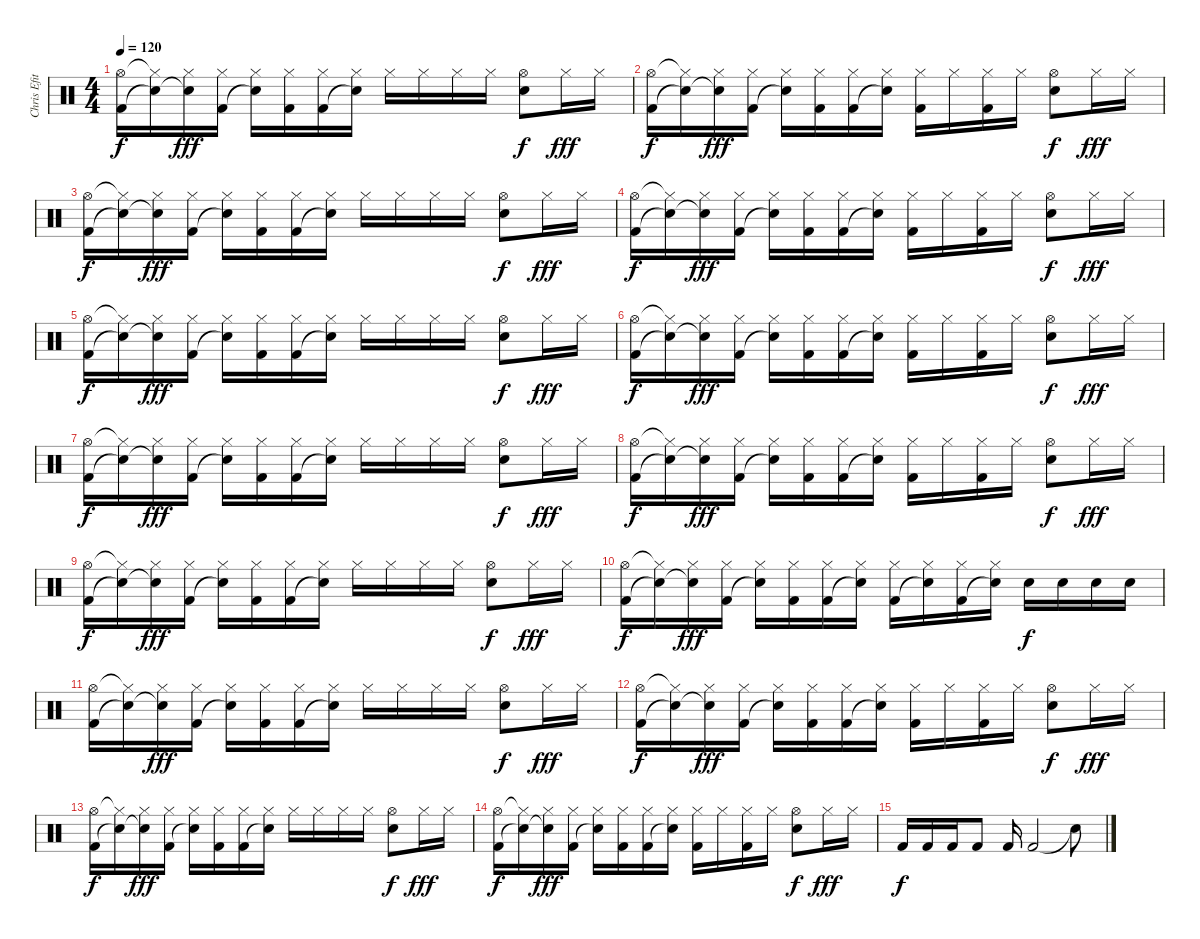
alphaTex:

\track ("Chris Efithimiadis (drums)" "Chris Efit") {instrument percussion}
\staff {score}
\articulation defaults
\ts (4 4)
\tempo 120
\clef neutral
\ks c
("Hi-Hat (open)" "Kick (hit) 2").16{dy f} ("Hi-Hat (closed)"{t} "Snare (hit)"{t}).16 ("Hi-Hat (closed)" "Snare (hit)"{t}).16{dy fff} ("Hi-Hat (closed)" "Kick (hit) 2").16 ("Hi-Hat (closed)" "Snare (hit)"{t}).16 ("Hi-Hat (closed)" "Kick (hit) 2").16 ("Hi-Hat (closed)" "Kick (hit) 2").16 ("Hi-Hat (closed)" "Snare (hit)"{t}).16 "Hi-Hat (closed)".16 "Hi-Hat (closed)".16 "Hi-Hat (closed)".16 "Hi-Hat (closed)".16 ("Hi-Hat (open)" "Snare (hit) 2").8{dy f} "Hi-Hat (closed)".16{dy fff} "Hi-Hat (closed)".16 |
("Hi-Hat (open)" "Kick (hit) 2").16{dy f} ("Hi-Hat (closed)"{t} "Snare (hit)"{t}).16 ("Hi-Hat (closed)" "Snare (hit)"{t}).16{dy fff} ("Hi-Hat (closed)" "Kick (hit) 2").16 ("Hi-Hat (closed)" "Snare (hit)"{t}).16 ("Hi-Hat (closed)" "Kick (hit) 2").16 ("Hi-Hat (closed)" "Kick (hit) 2").16 ("Hi-Hat (closed)" "Snare (hit)"{t}).16 ("Hi-Hat (closed)" "Kick (hit) 2").16 "Hi-Hat (closed)".16 ("Hi-Hat (closed)" "Kick (hit) 2").16 "Hi-Hat (closed)".16 ("Hi-Hat (open)" "Snare (hit) 2").8{dy f} "Hi-Hat (closed)".16{dy fff} "Hi-Hat (closed)".16 |
("Hi-Hat (open)" "Kick (hit) 2").16{dy f} ("Hi-Hat (closed)"{t} "Snare (hit)"{t}).16 ("Hi-Hat (closed)" "Snare (hit)"{t}).16{dy fff} ("Hi-Hat (closed)" "Kick (hit) 2").16 ("Hi-Hat (closed)" "Snare (hit)"{t}).16 ("Hi-Hat (closed)" "Kick (hit) 2").16 ("Hi-Hat (closed)" "Kick (hit) 2").16 ("Hi-Hat (closed)" "Snare (hit)"{t}).16 "Hi-Hat (closed)".16 "Hi-Hat (closed)".16 "Hi-Hat (closed)".16 "Hi-Hat (closed)".16 ("Hi-Hat (open)" "Snare (hit) 2").8{dy f} "Hi-Hat (closed)".16{dy fff} "Hi-Hat (closed)".16 |
("Hi-Hat (open)" "Kick (hit) 2").16{dy f} ("Hi-Hat (closed)"{t} "Snare (hit)"{t}).16 ("Hi-Hat (closed)" "Snare (hit)"{t}).16{dy fff} ("Hi-Hat (closed)" "Kick (hit) 2").16 ("Hi-Hat (closed)" "Snare (hit)"{t}).16 ("Hi-Hat (closed)" "Kick (hit) 2").16 ("Hi-Hat (closed)" "Kick (hit) 2").16 ("Hi-Hat (closed)" "Snare (hit)"{t}).16 ("Hi-Hat (closed)" "Kick (hit) 2").16 "Hi-Hat (closed)".16 ("Hi-Hat (closed)" "Kick (hit) 2").16 "Hi-Hat (closed)".16 ("Hi-Hat (open)" "Snare (hit) 2").8{dy f} "Hi-Hat (closed)".16{dy fff} "Hi-Hat (closed)".16 |
("Hi-Hat (open)" "Kick (hit) 2").16{dy f} ("Hi-Hat (closed)"{t} "Snare (hit)"{t}).16 ("Hi-Hat (closed)" "Snare (hit)"{t}).16{dy fff} ("Hi-Hat (closed)" "Kick (hit) 2").16 ("Hi-Hat (closed)" "Snare (hit)"{t}).16 ("Hi-Hat (closed)" "Kick (hit) 2").16 ("Hi-Hat (closed)" "Kick (hit) 2").16 ("Hi-Hat (closed)" "Snare (hit)"{t}).16 "Hi-Hat (closed)".16 "Hi-Hat (closed)".16 "Hi-Hat (closed)".16 "Hi-Hat (closed)".16 ("Hi-Hat (open)" "Snare (hit) 2").8{dy f} "Hi-Hat (closed)".16{dy fff} "Hi-Hat (closed)".16 |
("Hi-Hat (open)" "Kick (hit) 2").16{dy f} ("Hi-Hat (closed)"{t} "Snare (hit)"{t}).16 ("Hi-Hat (closed)" "Snare (hit)"{t}).16{dy fff} ("Hi-Hat (closed)" "Kick (hit) 2").16 ("Hi-Hat (closed)" "Snare (hit)"{t}).16 ("Hi-Hat (closed)" "Kick (hit) 2").16 ("Hi-Hat (closed)" "Kick (hit) 2").16 ("Hi-Hat (closed)" "Snare (hit)"{t}).16 ("Hi-Hat (closed)" "Kick (hit) 2").16 "Hi-Hat (closed)".16 ("Hi-Hat (closed)" "Kick (hit) 2").16 "Hi-Hat (closed)".16 ("Hi-Hat (open)" "Snare (hit) 2").8{dy f} "Hi-Hat (closed)".16{dy fff} "Hi-Hat (closed)".16 |
("Hi-Hat (open)" "Kick (hit) 2").16{dy f} ("Hi-Hat (closed)"{t} "Snare (hit)"{t}).16 ("Hi-Hat (closed)" "Snare (hit)"{t}).16{dy fff} ("Hi-Hat (closed)" "Kick (hit) 2").16 ("Hi-Hat (closed)" "Snare (hit)"{t}).16 ("Hi-Hat (closed)" "Kick (hit) 2").16 ("Hi-Hat (closed)" "Kick (hit) 2").16 ("Hi-Hat (closed)" "Snare (hit)"{t}).16 "Hi-Hat (closed)".16 "Hi-Hat (closed)".16 "Hi-Hat (closed)".16 "Hi-Hat (closed)".16 ("Hi-Hat (open)" "Snare (hit) 2").8{dy f} "Hi-Hat (closed)".16{dy fff} "Hi-Hat (closed)".16 |
("Hi-Hat (open)" "Kick (hit) 2").16{dy f} ("Hi-Hat (closed)"{t} "Snare (hit)"{t}).16 ("Hi-Hat (closed)" "Snare (hit)"{t}).16{dy fff} ("Hi-Hat (closed)" "Kick (hit) 2").16 ("Hi-Hat (closed)" "Snare (hit)"{t}).16 ("Hi-Hat (closed)" "Kick (hit) 2").16 ("Hi-Hat (closed)" "Kick (hit) 2").16 ("Hi-Hat (closed)" "Snare (hit)"{t}).16 ("Hi-Hat (closed)" "Kick (hit) 2").16 "Hi-Hat (closed)".16 ("Hi-Hat (closed)" "Kick (hit) 2").16 "Hi-Hat (closed)".16 ("Hi-Hat (open)" "Snare (hit) 2").8{dy f} "Hi-Hat (closed)".16{dy fff} "Hi-Hat (closed)".16 |
("Hi-Hat (open)" "Kick (hit) 2").16{dy f} ("Hi-Hat (closed)"{t} "Snare (hit)"{t}).16 ("Hi-Hat (closed)" "Snare (hit)"{t}).16{dy fff} ("Hi-Hat (closed)" "Kick (hit) 2").16 ("Hi-Hat (closed)" "Snare (hit)"{t}).16 ("Hi-Hat (closed)" "Kick (hit) 2").16 ("Hi-Hat (closed)" "Kick (hit) 2").16 ("Hi-Hat (closed)" "Snare (hit)"{t}).16 "Hi-Hat (closed)".16 "Hi-Hat (closed)".16 "Hi-Hat (closed)".16 "Hi-Hat (closed)".16 ("Hi-Hat (open)" "Snare (hit) 2").8{dy f} "Hi-Hat (closed)".16{dy fff} "Hi-Hat (closed)".16 |
("Hi-Hat (open)" "Kick (hit) 2").16{dy f} ("Hi-Hat (closed)"{t} "Snare (hit)"{t}).16 ("Hi-Hat (closed)" "Snare (hit)"{t}).16{dy fff} ("Hi-Hat (closed)" "Kick (hit) 2").16 ("Hi-Hat (closed)" "Snare (hit)"{t}).16 ("Hi-Hat (closed)" "Kick (hit) 2").16 ("Hi-Hat (closed)" "Kick (hit) 2").16 ("Hi-Hat (closed)" "Snare (hit)"{t}).16 ("Hi-Hat (closed)" "Kick (hit) 2").16 ("Hi-Hat (closed)" "Snare (hit)"{t}).16 ("Hi-Hat (closed)" "Kick (hit) 2").16 ("Hi-Hat (closed)" "Snare (hit)"{t}).16 "Snare (hit) 2".16{dy f} "Snare (hit) 2".16 "Snare (hit) 2".16 "Snare (hit) 2".16 |
("Hi-Hat (open)" "Kick (hit) 2").16 ("Hi-Hat (closed)"{t} "Snare (hit)"{t}).16 ("Hi-Hat (closed)" "Snare (hit)"{t}).16{dy fff} ("Hi-Hat (closed)" "Kick (hit) 2").16 ("Hi-Hat (closed)" "Snare (hit)"{t}).16 ("Hi-Hat (closed)" "Kick (hit) 2").16 ("Hi-Hat (closed)" "Kick (hit) 2").16 ("Hi-Hat (closed)" "Snare (hit)"{t}).16 "Hi-Hat (closed)".16 "Hi-Hat (closed)".16 "Hi-Hat (closed)".16 "Hi-Hat (closed)".16 ("Hi-Hat (open)" "Snare (hit) 2").8{dy f} "Hi-Hat (closed)".16{dy fff} "Hi-Hat (closed)".16 |
("Hi-Hat (open)" "Kick (hit) 2").16{dy f} ("Hi-Hat (closed)"{t} "Snare (hit)"{t}).16 ("Hi-Hat (closed)" "Snare (hit)"{t}).16{dy fff} ("Hi-Hat (closed)" "Kick (hit) 2").16 ("Hi-Hat (closed)" "Snare (hit)"{t}).16 ("Hi-Hat (closed)" "Kick (hit) 2").16 ("Hi-Hat (closed)" "Kick (hit) 2").16 ("Hi-Hat (closed)" "Snare (hit)"{t}).16 ("Hi-Hat (closed)" "Kick (hit) 2").16 "Hi-Hat (closed)".16 ("Hi-Hat (closed)" "Kick (hit) 2").16 "Hi-Hat (closed)".16 ("Hi-Hat (open)" "Snare (hit) 2").8{dy f} "Hi-Hat (closed)".16{dy fff} "Hi-Hat (closed)".16 |
("Hi-Hat (open)" "Kick (hit) 2").16{dy f} ("Hi-Hat (closed)"{t} "Snare (hit)"{t}).16 ("Hi-Hat (closed)" "Snare (hit)"{t}).16{dy fff} ("Hi-Hat (closed)" "Kick (hit) 2").16 ("Hi-Hat (closed)" "Snare (hit)"{t}).16 ("Hi-Hat (closed)" "Kick (hit) 2").16 ("Hi-Hat (closed)" "Kick (hit) 2").16 ("Hi-Hat (closed)" "Snare (hit)"{t}).16 "Hi-Hat (closed)".16 "Hi-Hat (closed)".16 "Hi-Hat (closed)".16 "Hi-Hat (closed)".16 ("Hi-Hat (open)" "Snare (hit) 2").8{dy f} "Hi-Hat (closed)".16{dy fff} "Hi-Hat (closed)".16 |
("Hi-Hat (open)" "Kick (hit) 2").16{dy f} ("Hi-Hat (closed)"{t} "Snare (hit)"{t}).16 ("Hi-Hat (closed)" "Snare (hit)"{t}).16{dy fff} ("Hi-Hat (closed)" "Kick (hit) 2").16 ("Hi-Hat (closed)" "Snare (hit)"{t}).16 ("Hi-Hat (closed)" "Kick (hit) 2").16 ("Hi-Hat (closed)" "Kick (hit) 2").16 ("Hi-Hat (closed)" "Snare (hit)"{t}).16 ("Hi-Hat (closed)" "Kick (hit) 2").16 "Hi-Hat (closed)".16 ("Hi-Hat (closed)" "Kick (hit) 2").16 "Hi-Hat (closed)".16 ("Hi-Hat (open)" "Snare (hit) 2").8{dy f} "Hi-Hat (closed)".16{dy fff} "Hi-Hat (closed)".16 |
"Kick (hit) 2".16{dy f} "Kick (hit) 2".16 "Kick (hit) 2".16 "Kick (hit) 2".8 "Kick (hit) 2".16 "Kick (hit) 2".2 "Snare (hit)"{t}.8
